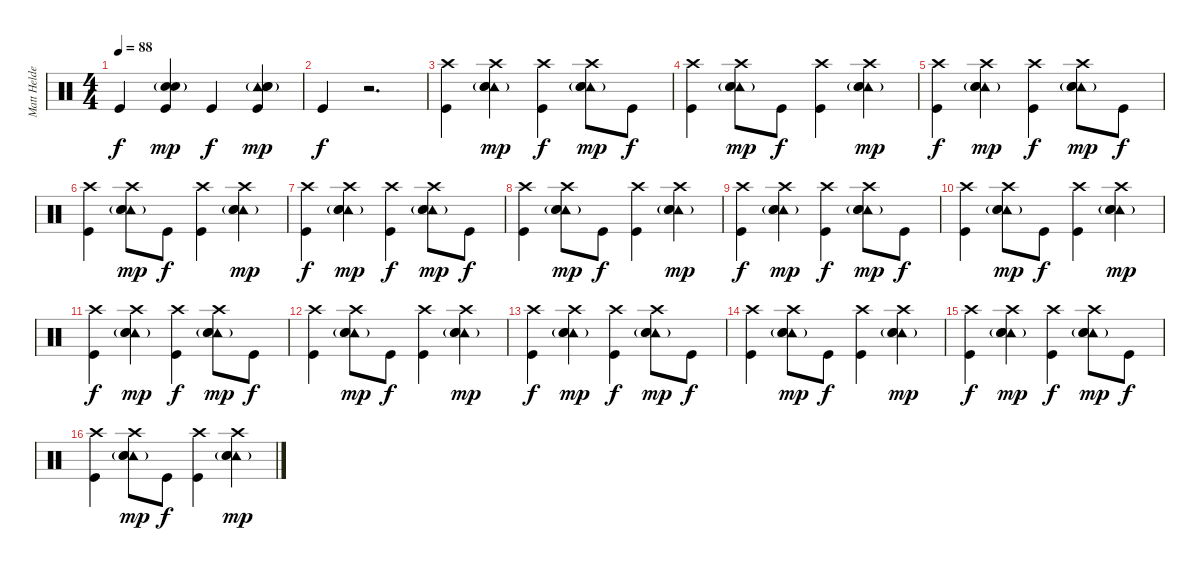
\track ("Matt Helders" "Matt Helde") {instrument percussion}
\staff {score}
\articulation defaults
\ts (4 4)
\tempo 88
\clef neutral
\ks c "Kick (hit)".4{dy f}
("Hand Clap (hit)" "Snare (hit) 2"{g} "Kick (hit)").4{dy mp} "Kick (hit)".4{dy f} ("Tambourine (hit)" "Hand Clap (hit)" "Snare (hit) 2"{g} "Kick (hit)").4{dy mp} |
"Kick (hit)".4{dy f} r.2{d} |
("Crash high (hit)" "Kick (hit)").4 ("Crash high (hit)" "Tambourine (hit)" "Hand Clap (hit)"{g} "Snare (hit) 2").4{dy mp} ("Crash high (hit)" "Kick (hit)").4{dy f} ("Crash high (hit)" "Tambourine (hit)" "Hand Clap (hit)"{g} "Snare (hit) 2").8{dy mp} "Kick (hit)".8{dy f} |
("Crash high (hit)" "Kick (hit)").4 ("Crash high (hit)" "Tambourine (hit)" "Hand Clap (hit)"{g} "Snare (hit) 2").8{dy mp} "Kick (hit)".8{dy f} ("Crash high (hit)" "Kick (hit)").4 ("Crash high (hit)" "Tambourine (hit)" "Hand Clap (hit)"{g} "Snare (hit) 2").4{dy mp} |
("Crash high (hit)" "Kick (hit)").4{dy f} ("Crash high (hit)" "Tambourine (hit)" "Hand Clap (hit)"{g} "Snare (hit) 2").4{dy mp} ("Crash high (hit)" "Kick (hit)").4{dy f} ("Crash high (hit)" "Tambourine (hit)" "Hand Clap (hit)"{g} "Snare (hit) 2").8{dy mp} "Kick (hit)".8{dy f} |
("Crash high (hit)" "Kick (hit)").4 ("Crash high (hit)" "Tambourine (hit)" "Hand Clap (hit)"{g} "Snare (hit) 2").8{dy mp} "Kick (hit)".8{dy f} ("Crash high (hit)" "Kick (hit)").4 ("Crash high (hit)" "Tambourine (hit)" "Hand Clap (hit)"{g} "Snare (hit) 2").4{dy mp} |
("Crash high (hit)" "Kick (hit)").4{dy f} ("Crash high (hit)" "Tambourine (hit)" "Hand Clap (hit)"{g} "Snare (hit) 2").4{dy mp} ("Crash high (hit)" "Kick (hit)").4{dy f} ("Crash high (hit)" "Tambourine (hit)" "Hand Clap (hit)"{g} "Snare (hit) 2").8{dy mp} "Kick (hit)".8{dy f} |
("Crash high (hit)" "Kick (hit)").4 ("Crash high (hit)" "Tambourine (hit)" "Hand Clap (hit)"{g} "Snare (hit) 2").8{dy mp} "Kick (hit)".8{dy f} ("Crash high (hit)" "Kick (hit)").4 ("Crash high (hit)" "Tambourine (hit)" "Hand Clap (hit)"{g} "Snare (hit) 2").4{dy mp} |
("Crash high (hit)" "Kick (hit)").4{dy f} ("Crash high (hit)" "Tambourine (hit)" "Hand Clap (hit)"{g} "Snare (hit) 2").4{dy mp} ("Crash high (hit)" "Kick (hit)").4{dy f} ("Crash high (hit)" "Tambourine (hit)" "Hand Clap (hit)"{g} "Snare (hit) 2").8{dy mp} "Kick (hit)".8{dy f} |
("Crash high (hit)" "Kick (hit)").4 ("Crash high (hit)" "Tambourine (hit)" "Hand Clap (hit)"{g} "Snare (hit) 2").8{dy mp} "Kick (hit)".8{dy f} ("Crash high (hit)" "Kick (hit)").4 ("Crash high (hit)" "Tambourine (hit)" "Hand Clap (hit)"{g} "Snare (hit) 2").4{dy mp} |
("Crash high (hit)" "Kick (hit)").4{dy f} ("Crash high (hit)" "Tambourine (hit)" "Hand Clap (hit)"{g} "Snare (hit) 2").4{dy mp} ("Crash high (hit)" "Kick (hit)").4{dy f} ("Crash high (hit)" "Tambourine (hit)" "Hand Clap (hit)"{g} "Snare (hit) 2").8{dy mp} "Kick (hit)".8{dy f} |
("Crash high (hit)" "Kick (hit)").4 ("Crash high (hit)" "Tambourine (hit)" "Hand Clap (hit)"{g} "Snare (hit) 2").8{dy mp} "Kick (hit)".8{dy f} ("Crash high (hit)" "Kick (hit)").4 ("Crash high (hit)" "Tambourine (hit)" "Hand Clap (hit)"{g} "Snare (hit) 2").4{dy mp} |
("Crash high (hit)" "Kick (hit)").4{dy f} ("Crash high (hit)" "Tambourine (hit)" "Hand Clap (hit)"{g} "Snare (hit) 2").4{dy mp} ("Crash high (hit)" "Kick (hit)").4{dy f} ("Crash high (hit)" "Tambourine (hit)" "Hand Clap (hit)"{g} "Snare (hit) 2").8{dy mp} "Kick (hit)".8{dy f} |
("Crash high (hit)" "Kick (hit)").4 ("Crash high (hit)" "Tambourine (hit)" "Hand Clap (hit)"{g} "Snare (hit) 2").8{dy mp} "Kick (hit)".8{dy f} ("Crash high (hit)" "Kick (hit)").4 ("Crash high (hit)" "Tambourine (hit)" "Hand Clap (hit)"{g} "Snare (hit) 2").4{dy mp} |
("Crash high (hit)" "Kick (hit)").4{dy f} ("Crash high (hit)" "Tambourine (hit)" "Hand Clap (hit)"{g} "Snare (hit) 2").4{dy mp} ("Crash high (hit)" "Kick (hit)").4{dy f} ("Crash high (hit)" "Tambourine (hit)" "Hand Clap (hit)"{g} "Snare (hit) 2").8{dy mp} "Kick (hit)".8{dy f} |
("Crash high (hit)" "Kick (hit)").4 ("Crash high (hit)" "Tambourine (hit)" "Hand Clap (hit)"{g} "Snare (hit) 2").8{dy mp} "Kick (hit)".8{dy f} ("Crash high (hit)" "Kick (hit)").4 ("Crash high (hit)" "Tambourine (hit)" "Hand Clap (hit)"{g} "Snare (hit) 2").4{dy mp}
